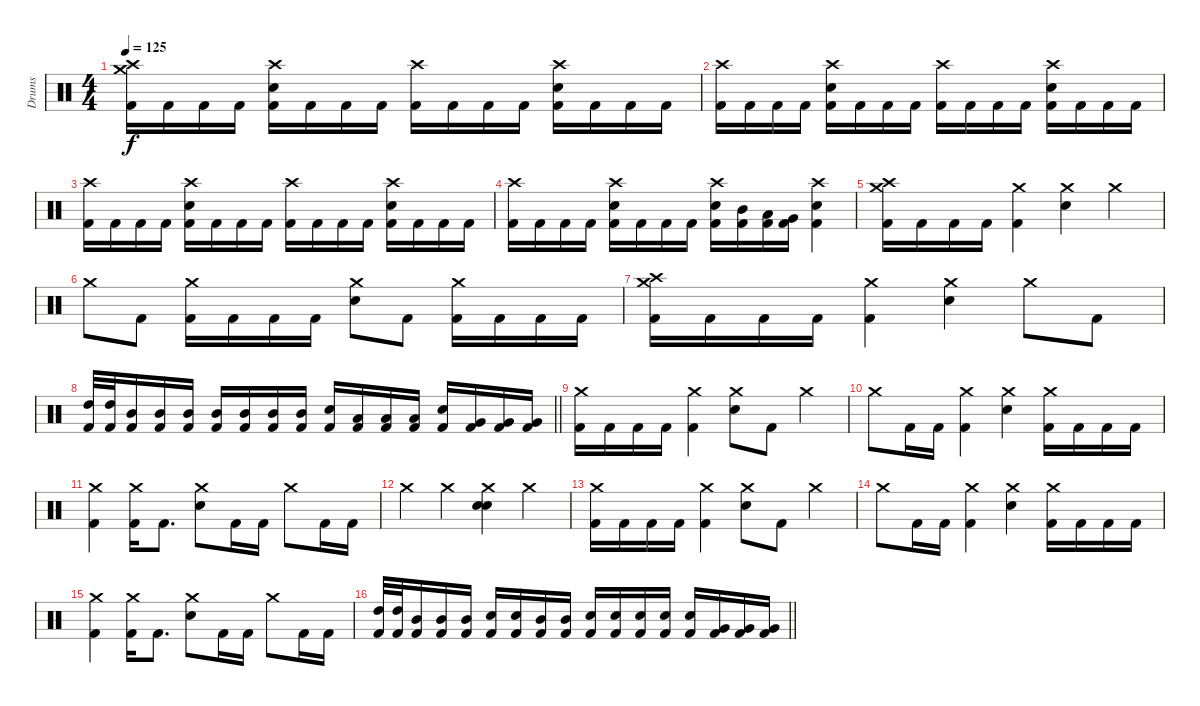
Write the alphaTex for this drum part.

\track ("Drums" "Drums") {instrument percussion}
\staff {score}
\articulation defaults
\ts (4 4)
\section ("" "")
\tempo 125
\clef neutral
\ks c
("Crash high (hit)" "Crash medium (hit)" "Kick (hit) 2").16{dy f} "Kick (hit) 2".16 "Kick (hit) 2".16 "Kick (hit) 2".16 ("Crash high (hit)" "Snare (hit) 2" "Kick (hit) 2").16 "Kick (hit) 2".16 "Kick (hit) 2".16 "Kick (hit) 2".16 ("Crash high (hit)" "Kick (hit) 2").16 "Kick (hit) 2".16 "Kick (hit) 2".16 "Kick (hit) 2".16 ("Crash high (hit)" "Snare (hit) 2" "Kick (hit) 2").16 "Kick (hit) 2".16 "Kick (hit) 2".16 "Kick (hit) 2".16 |
("Crash high (hit)" "Kick (hit) 2").16 "Kick (hit) 2".16 "Kick (hit) 2".16 "Kick (hit) 2".16 ("Crash high (hit)" "Snare (hit) 2" "Kick (hit) 2").16 "Kick (hit) 2".16 "Kick (hit) 2".16 "Kick (hit) 2".16 ("Crash high (hit)" "Kick (hit) 2").16 "Kick (hit) 2".16 "Kick (hit) 2".16 "Kick (hit) 2".16 ("Crash high (hit)" "Snare (hit) 2" "Kick (hit) 2").16 "Kick (hit) 2".16 "Kick (hit) 2".16 "Kick (hit) 2".16 |
("Crash high (hit)" "Kick (hit) 2").16 "Kick (hit) 2".16 "Kick (hit) 2".16 "Kick (hit) 2".16 ("Crash high (hit)" "Snare (hit) 2" "Kick (hit) 2").16 "Kick (hit) 2".16 "Kick (hit) 2".16 "Kick (hit) 2".16 ("Crash high (hit)" "Kick (hit) 2").16 "Kick (hit) 2".16 "Kick (hit) 2".16 "Kick (hit) 2".16 ("Crash high (hit)" "Snare (hit) 2" "Kick (hit) 2").16 "Kick (hit) 2".16 "Kick (hit) 2".16 "Kick (hit) 2".16 |
("Crash high (hit)" "Kick (hit) 2").16 "Kick (hit) 2".16 "Kick (hit) 2".16 "Kick (hit) 2".16 ("Crash high (hit)" "Snare (hit) 2" "Kick (hit) 2").16 "Kick (hit) 2".16 "Kick (hit) 2".16 "Kick (hit) 2".16 ("Crash high (hit)" "Snare (hit) 2" "Kick (hit) 2").16 ("Mid Tom (hit)" "Kick (hit) 2").16 ("Low Tom (hit)" "Kick (hit) 2").16 ("Very Low Tom (hit)" "Kick (hit) 2").16 ("Crash high (hit)" "Snare (hit) 2" "Kick (hit) 2").4 |
("Crash medium (hit)" "Crash high (hit)" "Kick (hit) 2").16 "Kick (hit) 2".16 "Kick (hit) 2".16 "Kick (hit) 2".16 ("Crash medium (hit)" "Kick (hit) 2").4 ("Crash medium (hit)" "Snare (hit) 2").4 "Crash medium (hit)".4 |
"Crash medium (hit)".8 "Kick (hit) 2".8 ("Crash medium (hit)" "Kick (hit) 2").16 "Kick (hit) 2".16 "Kick (hit) 2".16 "Kick (hit) 2".16 ("Crash medium (hit)" "Snare (hit) 2").8 "Kick (hit) 2".8 ("Crash medium (hit)" "Kick (hit) 2").16 "Kick (hit) 2".16 "Kick (hit) 2".16 "Kick (hit) 2".16 |
("Crash medium (hit)" "Crash high (hit)" "Kick (hit) 2").16 "Kick (hit) 2".16 "Kick (hit) 2".16 "Kick (hit) 2".16 ("Crash medium (hit)" "Kick (hit) 2").4 ("Crash medium (hit)" "Snare (hit) 2").4 "Crash medium (hit)".8 "Kick (hit) 2".8 |
\barLineRight lightlight
("High Tom (hit)" "Kick (hit) 2").32 ("High Tom (hit)" "Kick (hit) 2").32 ("Mid Tom (hit)" "Kick (hit) 2").16 ("Mid Tom (hit)" "Kick (hit) 2").16 ("Mid Tom (hit)" "Kick (hit) 2").16 ("Mid Tom (hit)" "Kick (hit) 2").16 ("Mid Tom (hit)" "Kick (hit) 2").16 ("Mid Tom (hit)" "Kick (hit) 2").16 ("Mid Tom (hit)" "Kick (hit) 2").16 ("Snare (hit) 2" "Kick (hit) 2").16 ("Low Tom (hit)" "Kick (hit) 2").16 ("Low Tom (hit)" "Kick (hit) 2").16 ("Low Tom (hit)" "Kick (hit) 2").16 ("Snare (hit) 2" "Kick (hit) 2").16 ("Very Low Tom (hit)" "Kick (hit) 2").16 ("Very Low Tom (hit)" "Kick (hit) 2").16 ("Very Low Tom (hit)" "Kick (hit) 2").16 |
\section ("" "")
("Crash medium (hit)" "Kick (hit) 2").16 "Kick (hit) 2".16 "Kick (hit) 2".16 "Kick (hit) 2".16 ("Crash medium (hit)" "Kick (hit) 2").4 ("Crash medium (hit)" "Snare (hit) 2").8 "Kick (hit) 2".8 "Crash medium (hit)".4 |
"Crash medium (hit)".8 "Kick (hit) 2".16 "Kick (hit) 2".16 ("Crash medium (hit)" "Kick (hit) 2").4 ("Crash medium (hit)" "Snare (hit) 2").4 ("Crash medium (hit)" "Kick (hit) 2").16 "Kick (hit) 2".16 "Kick (hit) 2".16 "Kick (hit) 2".16 |
("Crash medium (hit)" "Kick (hit) 2").4 ("Crash medium (hit)" "Kick (hit) 2").16 "Kick (hit) 2".8{d} ("Crash medium (hit)" "Snare (hit) 2").8 "Kick (hit) 2".16 "Kick (hit) 2".16 "Crash medium (hit)".8 "Kick (hit) 2".16 "Kick (hit) 2".16 |
"Crash medium (hit)".4 "Crash medium (hit)".4 ("Crash medium (hit)" "Electric Snare (hit)" "Snare (hit) 2").4 "Crash medium (hit)".4 |
("Crash medium (hit)" "Kick (hit) 2").16 "Kick (hit) 2".16 "Kick (hit) 2".16 "Kick (hit) 2".16 ("Crash medium (hit)" "Kick (hit) 2").4 ("Crash medium (hit)" "Snare (hit) 2").8 "Kick (hit) 2".8 "Crash medium (hit)".4 |
"Crash medium (hit)".8 "Kick (hit) 2".16 "Kick (hit) 2".16 ("Crash medium (hit)" "Kick (hit) 2").4 ("Crash medium (hit)" "Snare (hit) 2").4 ("Crash medium (hit)" "Kick (hit) 2").16 "Kick (hit) 2".16 "Kick (hit) 2".16 "Kick (hit) 2".16 |
("Crash medium (hit)" "Kick (hit) 2").4 ("Crash medium (hit)" "Kick (hit) 2").16 "Kick (hit) 2".8{d} ("Crash medium (hit)" "Snare (hit) 2").8 "Kick (hit) 2".16 "Kick (hit) 2".16 "Crash medium (hit)".8 "Kick (hit) 2".16 "Kick (hit) 2".16 |
\barLineRight lightlight
("High Tom (hit)" "Kick (hit) 2").32 ("High Tom (hit)" "Kick (hit) 2").32 ("Mid Tom (hit)" "Kick (hit) 2").16 ("Mid Tom (hit)" "Kick (hit) 2").16 ("Mid Tom (hit)" "Kick (hit) 2").16 ("Snare (hit) 2" "Kick (hit) 2").16 ("Snare (hit) 2" "Kick (hit) 2").16 ("Mid Tom (hit)" "Kick (hit) 2").16 ("Mid Tom (hit)" "Kick (hit) 2").16 ("Snare (hit) 2" "Kick (hit) 2").16 ("Snare (hit) 2" "Kick (hit) 2").16 ("Snare (hit) 2" "Kick (hit) 2").16 ("Snare (hit) 2" "Kick (hit) 2").16 ("Snare (hit) 2" "Kick (hit) 2").16 ("Very Low Tom (hit)" "Kick (hit) 2").16 ("Very Low Tom (hit)" "Kick (hit) 2").16 ("Very Low Tom (hit)" "Kick (hit) 2").16
